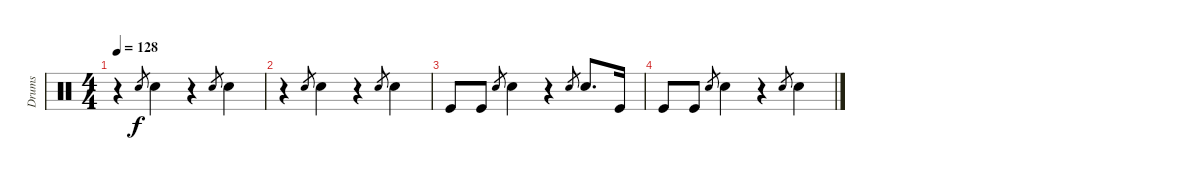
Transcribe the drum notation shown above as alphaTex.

\track ("Drums" "Drums") {instrument percussion}
\staff {score}
\articulation defaults
\ts (4 4)
\tempo 128
\clef neutral
\ks c
r.4{dy f} "Electric Snare (hit)".8{gr} "Electric Snare (hit)".4 r.4 "Electric Snare (hit)".8{gr} "Electric Snare (hit)".4 |
r.4 "Electric Snare (hit)".8{gr} "Electric Snare (hit)".4 r.4 "Electric Snare (hit)".8{gr} "Electric Snare (hit)".4 |
"Kick (hit)".8 "Kick (hit)".8 "Electric Snare (hit)".8{gr} "Electric Snare (hit)".4 r.4 "Electric Snare (hit)".8{gr} "Electric Snare (hit)".8{d} "Kick (hit)".16 |
"Kick (hit)".8 "Kick (hit)".8 "Electric Snare (hit)".8{gr} "Electric Snare (hit)".4 r.4 "Electric Snare (hit)".8{gr} "Electric Snare (hit)".4
